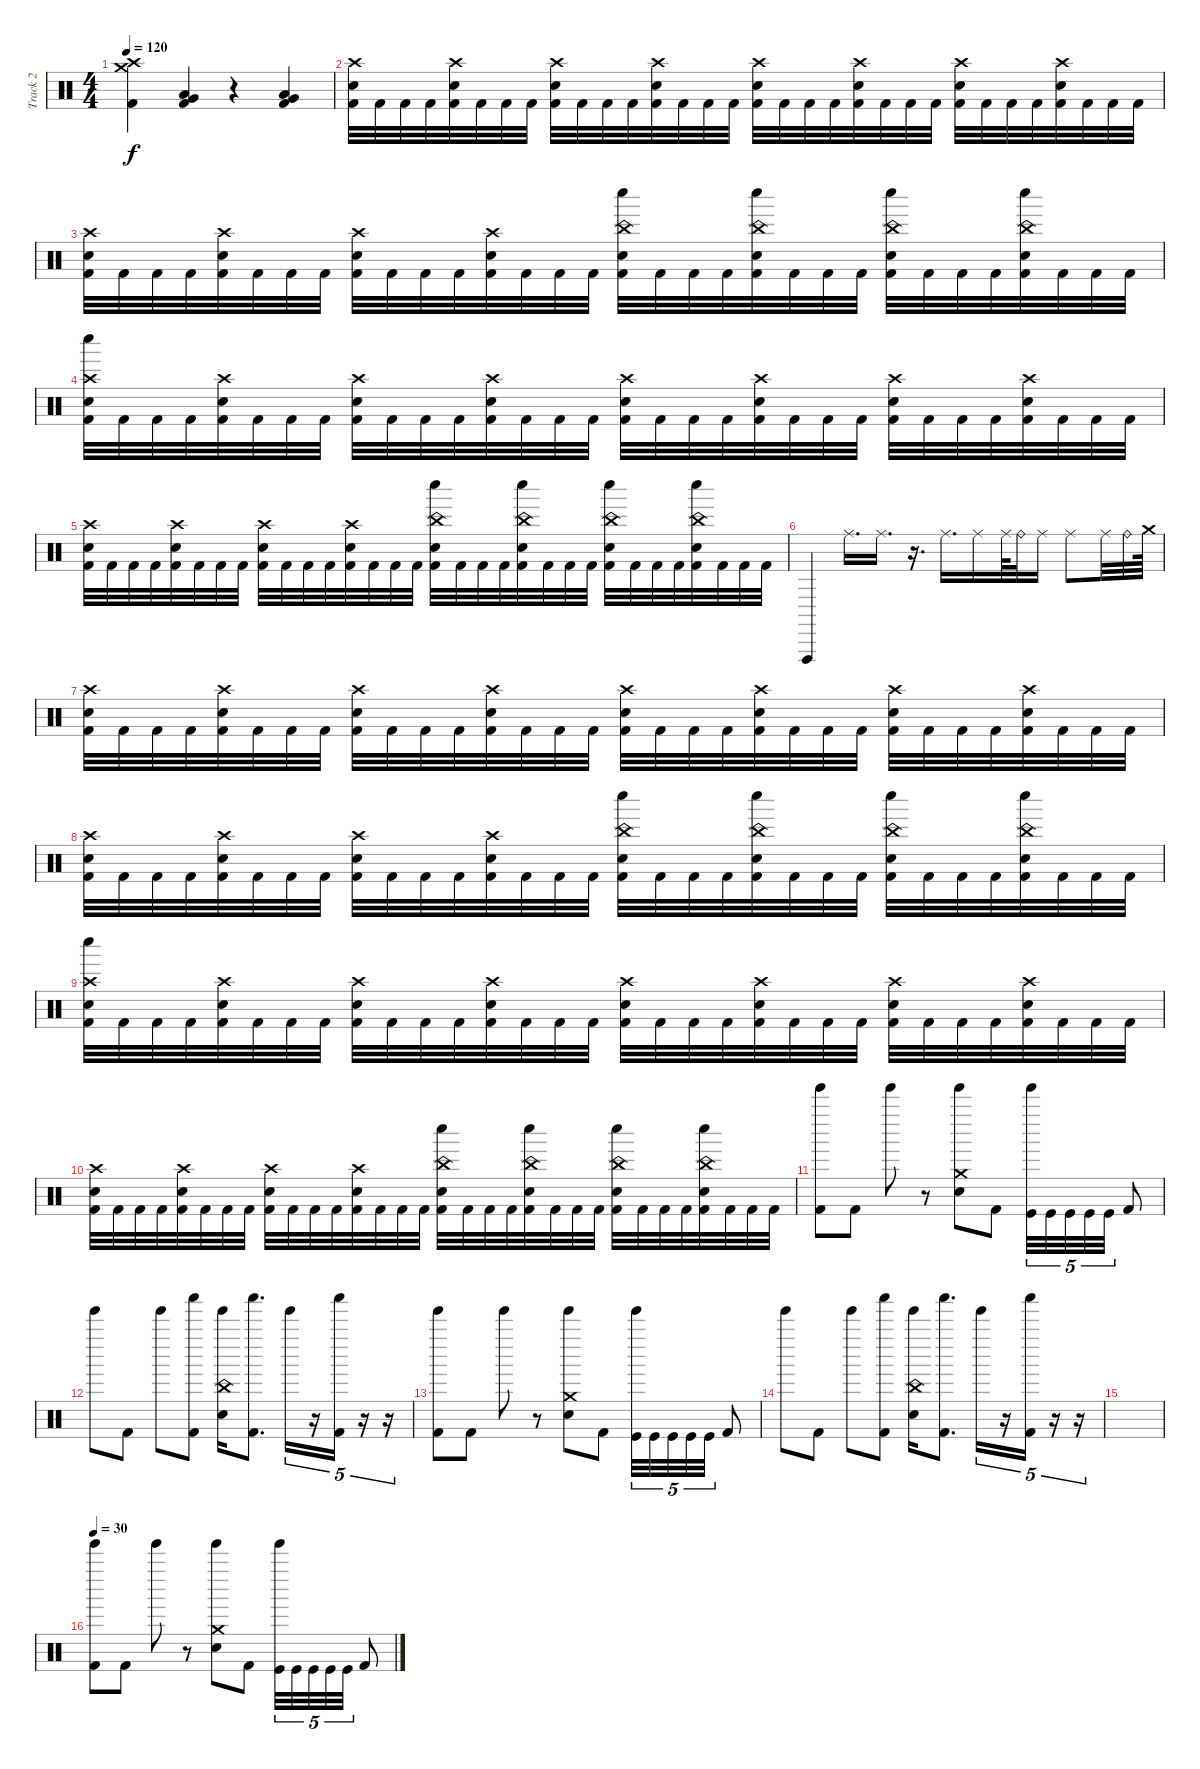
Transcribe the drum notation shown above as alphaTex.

\track ("Track 2" "Track 2") {instrument percussion}
\staff {score}
\articulation defaults
\ts (4 4)
\tempo 120
\clef neutral
\ks c
("Crash medium (hit)" "Crash high (hit)" "Kick (hit) 2").4{dy f} ("Low Tom (hit)" "Very Low Tom (hit)" "Kick (hit) 2").4 r.4 ("Low Tom (hit)" "Very Low Tom (hit)" "Kick (hit) 2").4 |
("Crash high (hit)" "Electric Snare (hit)" "Kick (hit) 2").32 "Kick (hit) 2".32 "Kick (hit) 2".32 "Kick (hit) 2".32 ("Crash high (hit)" "Electric Snare (hit)" "Kick (hit) 2").32 "Kick (hit) 2".32 "Kick (hit) 2".32 "Kick (hit) 2".32 ("Crash high (hit)" "Electric Snare (hit)" "Kick (hit) 2").32 "Kick (hit) 2".32 "Kick (hit) 2".32 "Kick (hit) 2".32 ("Crash high (hit)" "Electric Snare (hit)" "Kick (hit) 2").32 "Kick (hit) 2".32 "Kick (hit) 2".32 "Kick (hit) 2".32 ("Crash high (hit)" "Electric Snare (hit)" "Kick (hit) 2").32 "Kick (hit) 2".32 "Kick (hit) 2".32 "Kick (hit) 2".32 ("Crash high (hit)" "Electric Snare (hit)" "Kick (hit) 2").32 "Kick (hit) 2".32 "Kick (hit) 2".32 "Kick (hit) 2".32 ("Crash high (hit)" "Electric Snare (hit)" "Kick (hit) 2").32 "Kick (hit) 2".32 "Kick (hit) 2".32 "Kick (hit) 2".32 ("Crash high (hit)" "Electric Snare (hit)" "Kick (hit) 2").32 "Kick (hit) 2".32 "Kick (hit) 2".32 "Kick (hit) 2".32 |
("Crash high (hit)" "Electric Snare (hit)" "Kick (hit) 2").32 "Kick (hit) 2".32 "Kick (hit) 2".32 "Kick (hit) 2".32 ("Crash high (hit)" "Electric Snare (hit)" "Kick (hit) 2").32 "Kick (hit) 2".32 "Kick (hit) 2".32 "Kick (hit) 2".32 ("Crash high (hit)" "Electric Snare (hit)" "Kick (hit) 2").32 "Kick (hit) 2".32 "Kick (hit) 2".32 "Kick (hit) 2".32 ("Crash high (hit)" "Electric Snare (hit)" "Kick (hit) 2").32 "Kick (hit) 2".32 "Kick (hit) 2".32 "Kick (hit) 2".32 ("China (hit)" "Whistle low (hit)" "Electric Snare (hit)" "Kick (hit) 2").32 "Kick (hit) 2".32 "Kick (hit) 2".32 "Kick (hit) 2".32 ("China (hit)" "Whistle low (hit)" "Electric Snare (hit)" "Kick (hit) 2").32 "Kick (hit) 2".32 "Kick (hit) 2".32 "Kick (hit) 2".32 ("China (hit)" "Whistle low (hit)" "Electric Snare (hit)" "Kick (hit) 2").32 "Kick (hit) 2".32 "Kick (hit) 2".32 "Kick (hit) 2".32 ("China (hit)" "Whistle low (hit)" "Electric Snare (hit)" "Kick (hit) 2").32 "Kick (hit) 2".32 "Kick (hit) 2".32 "Kick (hit) 2".32 |
("Crash high (hit)" "Whistle low (hit)" "Electric Snare (hit)" "Kick (hit) 2").32 "Kick (hit) 2".32 "Kick (hit) 2".32 "Kick (hit) 2".32 ("Crash high (hit)" "Electric Snare (hit)" "Kick (hit) 2").32 "Kick (hit) 2".32 "Kick (hit) 2".32 "Kick (hit) 2".32 ("Crash high (hit)" "Electric Snare (hit)" "Kick (hit) 2").32 "Kick (hit) 2".32 "Kick (hit) 2".32 "Kick (hit) 2".32 ("Crash high (hit)" "Electric Snare (hit)" "Kick (hit) 2").32 "Kick (hit) 2".32 "Kick (hit) 2".32 "Kick (hit) 2".32 ("Crash high (hit)" "Electric Snare (hit)" "Kick (hit) 2").32 "Kick (hit) 2".32 "Kick (hit) 2".32 "Kick (hit) 2".32 ("Crash high (hit)" "Electric Snare (hit)" "Kick (hit) 2").32 "Kick (hit) 2".32 "Kick (hit) 2".32 "Kick (hit) 2".32 ("Crash high (hit)" "Electric Snare (hit)" "Kick (hit) 2").32 "Kick (hit) 2".32 "Kick (hit) 2".32 "Kick (hit) 2".32 ("Crash high (hit)" "Electric Snare (hit)" "Kick (hit) 2").32 "Kick (hit) 2".32 "Kick (hit) 2".32 "Kick (hit) 2".32 |
("Crash high (hit)" "Electric Snare (hit)" "Kick (hit) 2").32 "Kick (hit) 2".32 "Kick (hit) 2".32 "Kick (hit) 2".32 ("Crash high (hit)" "Electric Snare (hit)" "Kick (hit) 2").32 "Kick (hit) 2".32 "Kick (hit) 2".32 "Kick (hit) 2".32 ("Crash high (hit)" "Electric Snare (hit)" "Kick (hit) 2").32 "Kick (hit) 2".32 "Kick (hit) 2".32 "Kick (hit) 2".32 ("Crash high (hit)" "Electric Snare (hit)" "Kick (hit) 2").32 "Kick (hit) 2".32 "Kick (hit) 2".32 "Kick (hit) 2".32 ("China (hit)" "Whistle low (hit)" "Electric Snare (hit)" "Kick (hit) 2").32 "Kick (hit) 2".32 "Kick (hit) 2".32 "Kick (hit) 2".32 ("China (hit)" "Whistle low (hit)" "Electric Snare (hit)" "Kick (hit) 2").32 "Kick (hit) 2".32 "Kick (hit) 2".32 "Kick (hit) 2".32 ("China (hit)" "Whistle low (hit)" "Electric Snare (hit)" "Kick (hit) 2").32 "Kick (hit) 2".32 "Kick (hit) 2".32 "Kick (hit) 2".32 ("China (hit)" "Whistle low (hit)" "Electric Snare (hit)" "Kick (hit) 2").32 "Kick (hit) 2".32 "Kick (hit) 2".32 "Kick (hit) 2".32 |
"Vibraslap (hit)".4 "Ride (middle)".16{d} "Ride (middle)".16{d} r.16{d} "Ride (middle)".16{d} "Ride (middle)".16 "Ride (middle)".64 "Ride (bell)".32 "Ride (middle)".16 "Ride (middle)".8 "Ride (middle)".32 "Ride (bell)".32 "Crash medium (hit)".64 |
("Crash high (hit)" "Electric Snare (hit)" "Kick (hit) 2").32 "Kick (hit) 2".32 "Kick (hit) 2".32 "Kick (hit) 2".32 ("Crash high (hit)" "Electric Snare (hit)" "Kick (hit) 2").32 "Kick (hit) 2".32 "Kick (hit) 2".32 "Kick (hit) 2".32 ("Crash high (hit)" "Electric Snare (hit)" "Kick (hit) 2").32 "Kick (hit) 2".32 "Kick (hit) 2".32 "Kick (hit) 2".32 ("Crash high (hit)" "Electric Snare (hit)" "Kick (hit) 2").32 "Kick (hit) 2".32 "Kick (hit) 2".32 "Kick (hit) 2".32 ("Crash high (hit)" "Electric Snare (hit)" "Kick (hit) 2").32 "Kick (hit) 2".32 "Kick (hit) 2".32 "Kick (hit) 2".32 ("Crash high (hit)" "Electric Snare (hit)" "Kick (hit) 2").32 "Kick (hit) 2".32 "Kick (hit) 2".32 "Kick (hit) 2".32 ("Crash high (hit)" "Electric Snare (hit)" "Kick (hit) 2").32 "Kick (hit) 2".32 "Kick (hit) 2".32 "Kick (hit) 2".32 ("Crash high (hit)" "Electric Snare (hit)" "Kick (hit) 2").32 "Kick (hit) 2".32 "Kick (hit) 2".32 "Kick (hit) 2".32 |
("Crash high (hit)" "Electric Snare (hit)" "Kick (hit) 2").32 "Kick (hit) 2".32 "Kick (hit) 2".32 "Kick (hit) 2".32 ("Crash high (hit)" "Electric Snare (hit)" "Kick (hit) 2").32 "Kick (hit) 2".32 "Kick (hit) 2".32 "Kick (hit) 2".32 ("Crash high (hit)" "Electric Snare (hit)" "Kick (hit) 2").32 "Kick (hit) 2".32 "Kick (hit) 2".32 "Kick (hit) 2".32 ("Crash high (hit)" "Electric Snare (hit)" "Kick (hit) 2").32 "Kick (hit) 2".32 "Kick (hit) 2".32 "Kick (hit) 2".32 ("China (hit)" "Whistle low (hit)" "Electric Snare (hit)" "Kick (hit) 2").32 "Kick (hit) 2".32 "Kick (hit) 2".32 "Kick (hit) 2".32 ("China (hit)" "Whistle low (hit)" "Electric Snare (hit)" "Kick (hit) 2").32 "Kick (hit) 2".32 "Kick (hit) 2".32 "Kick (hit) 2".32 ("China (hit)" "Whistle low (hit)" "Electric Snare (hit)" "Kick (hit) 2").32 "Kick (hit) 2".32 "Kick (hit) 2".32 "Kick (hit) 2".32 ("China (hit)" "Whistle low (hit)" "Electric Snare (hit)" "Kick (hit) 2").32 "Kick (hit) 2".32 "Kick (hit) 2".32 "Kick (hit) 2".32 |
("Crash high (hit)" "Whistle low (hit)" "Electric Snare (hit)" "Kick (hit) 2").32 "Kick (hit) 2".32 "Kick (hit) 2".32 "Kick (hit) 2".32 ("Crash high (hit)" "Electric Snare (hit)" "Kick (hit) 2").32 "Kick (hit) 2".32 "Kick (hit) 2".32 "Kick (hit) 2".32 ("Crash high (hit)" "Electric Snare (hit)" "Kick (hit) 2").32 "Kick (hit) 2".32 "Kick (hit) 2".32 "Kick (hit) 2".32 ("Crash high (hit)" "Electric Snare (hit)" "Kick (hit) 2").32 "Kick (hit) 2".32 "Kick (hit) 2".32 "Kick (hit) 2".32 ("Crash high (hit)" "Electric Snare (hit)" "Kick (hit) 2").32 "Kick (hit) 2".32 "Kick (hit) 2".32 "Kick (hit) 2".32 ("Crash high (hit)" "Electric Snare (hit)" "Kick (hit) 2").32 "Kick (hit) 2".32 "Kick (hit) 2".32 "Kick (hit) 2".32 ("Crash high (hit)" "Electric Snare (hit)" "Kick (hit) 2").32 "Kick (hit) 2".32 "Kick (hit) 2".32 "Kick (hit) 2".32 ("Crash high (hit)" "Electric Snare (hit)" "Kick (hit) 2").32 "Kick (hit) 2".32 "Kick (hit) 2".32 "Kick (hit) 2".32 |
("Crash high (hit)" "Electric Snare (hit)" "Kick (hit) 2").32 "Kick (hit) 2".32 "Kick (hit) 2".32 "Kick (hit) 2".32 ("Crash high (hit)" "Electric Snare (hit)" "Kick (hit) 2").32 "Kick (hit) 2".32 "Kick (hit) 2".32 "Kick (hit) 2".32 ("Crash high (hit)" "Electric Snare (hit)" "Kick (hit) 2").32 "Kick (hit) 2".32 "Kick (hit) 2".32 "Kick (hit) 2".32 ("Crash high (hit)" "Electric Snare (hit)" "Kick (hit) 2").32 "Kick (hit) 2".32 "Kick (hit) 2".32 "Kick (hit) 2".32 ("China (hit)" "Whistle low (hit)" "Electric Snare (hit)" "Kick (hit) 2").32 "Kick (hit) 2".32 "Kick (hit) 2".32 "Kick (hit) 2".32 ("China (hit)" "Whistle low (hit)" "Electric Snare (hit)" "Kick (hit) 2").32 "Kick (hit) 2".32 "Kick (hit) 2".32 "Kick (hit) 2".32 ("China (hit)" "Whistle low (hit)" "Electric Snare (hit)" "Kick (hit) 2").32 "Kick (hit) 2".32 "Kick (hit) 2".32 "Kick (hit) 2".32 ("China (hit)" "Whistle low (hit)" "Electric Snare (hit)" "Kick (hit) 2").32 "Kick (hit) 2".32 "Kick (hit) 2".32 "Kick (hit) 2".32 |
("Tinkle Bell (hit)" "Kick (hit) 2").8 "Kick (hit) 2".8 "Tinkle Bell (hit)".8 r.8 ("Tinkle Bell (hit)" "Electric Snare (hit)" "Crash medium (hit)").8 "Kick (hit) 2".8 ("Tinkle Bell (hit)" "Kick (hit)").32{tu (5 4)} "Kick (hit)".32{tu (5 4)} "Kick (hit)".32{tu (5 4)} "Kick (hit)".32{tu (5 4)} "Kick (hit)".32{tu (5 4)} "Kick (hit) 2".8 |
"Tinkle Bell (hit)".8 "Kick (hit) 2".8 "Tinkle Bell (hit)".8 ("Shaker (hit)" "Kick (hit) 2").8 ("Tinkle Bell (hit)" "Electric Snare (hit)" "China (hit)").16 ("Shaker (hit)" "Kick (hit) 2").8{d} "Tinkle Bell (hit)".16{tu (5 4)} r.16{tu (5 4)} ("Shaker (hit)" "Kick (hit) 2").16{tu (5 4)} r.16{tu (5 4)} r.16{tu (5 4)} |
("Tinkle Bell (hit)" "Kick (hit) 2").8 "Kick (hit) 2".8 "Tinkle Bell (hit)".8 r.8 ("Tinkle Bell (hit)" "Electric Snare (hit)" "Crash medium (hit)").8 "Kick (hit) 2".8 ("Tinkle Bell (hit)" "Kick (hit)").32{tu (5 4)} "Kick (hit)".32{tu (5 4)} "Kick (hit)".32{tu (5 4)} "Kick (hit)".32{tu (5 4)} "Kick (hit)".32{tu (5 4)} "Kick (hit) 2".8 |
"Tinkle Bell (hit)".8 "Kick (hit) 2".8 "Tinkle Bell (hit)".8 ("Shaker (hit)" "Kick (hit) 2").8 ("Tinkle Bell (hit)" "Electric Snare (hit)" "China (hit)").16 ("Shaker (hit)" "Kick (hit) 2").8{d} "Tinkle Bell (hit)".16{tu (5 4)} r.16{tu (5 4)} ("Shaker (hit)" "Kick (hit) 2").16{tu (5 4)} r.16{tu (5 4)} r.16{tu (5 4)} |
|
\tempo 30
("Tinkle Bell (hit)" "Kick (hit) 2").8 "Kick (hit) 2".8 "Tinkle Bell (hit)".8 r.8 ("Tinkle Bell (hit)" "Electric Snare (hit)" "Crash medium (hit)").8 "Kick (hit) 2".8 ("Tinkle Bell (hit)" "Kick (hit)").32{tu (5 4)} "Kick (hit)".32{tu (5 4)} "Kick (hit)".32{tu (5 4)} "Kick (hit)".32{tu (5 4)} "Kick (hit)".32{tu (5 4)} "Kick (hit) 2".8
